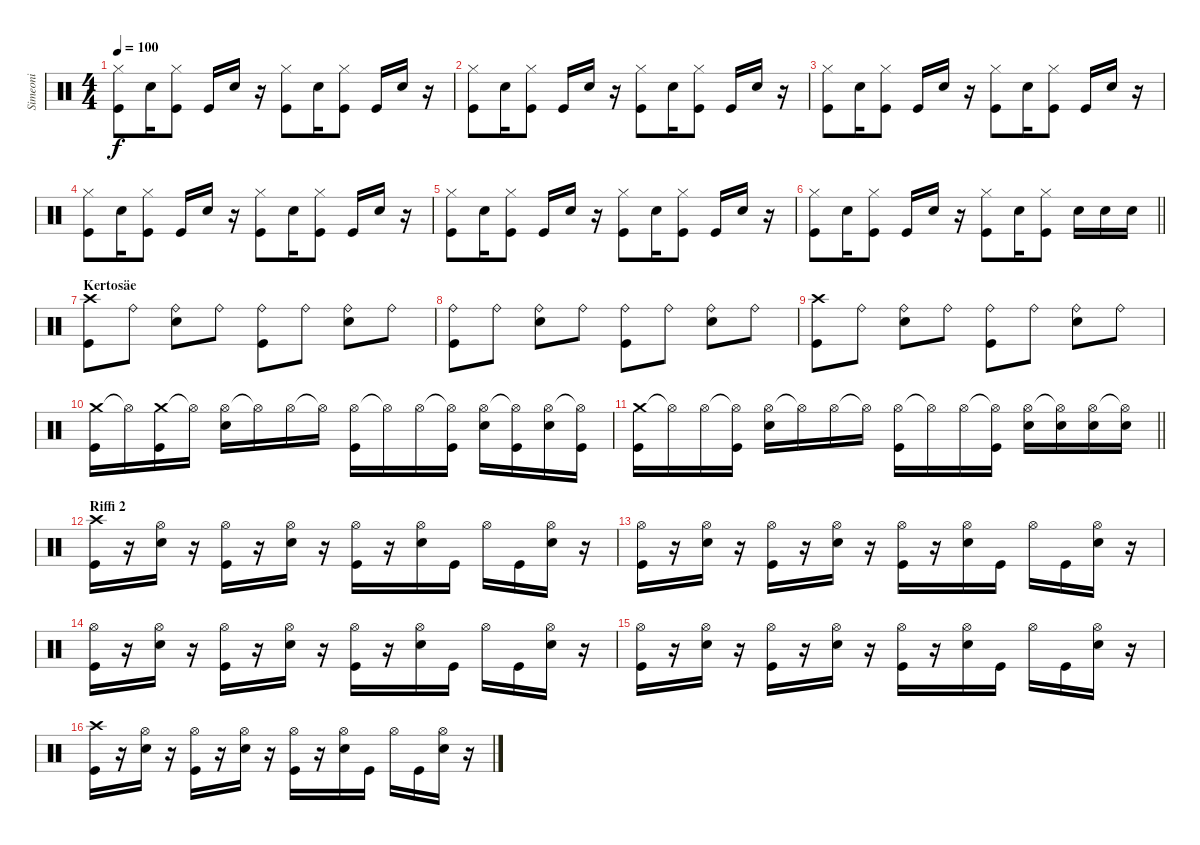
\track ("Simeoni" "Simeoni") {instrument percussion}
\staff {score}
\articulation defaults
\ts (4 4)
\tempo 100
\clef neutral
\ks c
("Hi-Hat (closed)" "Kick (hit)").8{dy f} "Electric Snare (hit)".16 ("Hi-Hat (closed)" "Kick (hit)").8 "Kick (hit)".16 "Electric Snare (hit)".16 r.16 ("Hi-Hat (closed)" "Kick (hit)").8 "Electric Snare (hit)".16 ("Hi-Hat (closed)" "Kick (hit)").8 "Kick (hit)".16 "Electric Snare (hit)".16 r.16 |
("Hi-Hat (closed)" "Kick (hit)").8 "Electric Snare (hit)".16 ("Hi-Hat (closed)" "Kick (hit)").8 "Kick (hit)".16 "Electric Snare (hit)".16 r.16 ("Hi-Hat (closed)" "Kick (hit)").8 "Electric Snare (hit)".16 ("Hi-Hat (closed)" "Kick (hit)").8 "Kick (hit)".16 "Electric Snare (hit)".16 r.16 |
("Hi-Hat (closed)" "Kick (hit)").8 "Electric Snare (hit)".16 ("Hi-Hat (closed)" "Kick (hit)").8 "Kick (hit)".16 "Electric Snare (hit)".16 r.16 ("Hi-Hat (closed)" "Kick (hit)").8 "Electric Snare (hit)".16 ("Hi-Hat (closed)" "Kick (hit)").8 "Kick (hit)".16 "Electric Snare (hit)".16 r.16 |
("Hi-Hat (closed)" "Kick (hit)").8 "Electric Snare (hit)".16 ("Hi-Hat (closed)" "Kick (hit)").8 "Kick (hit)".16 "Electric Snare (hit)".16 r.16 ("Hi-Hat (closed)" "Kick (hit)").8 "Electric Snare (hit)".16 ("Hi-Hat (closed)" "Kick (hit)").8 "Kick (hit)".16 "Electric Snare (hit)".16 r.16 |
("Hi-Hat (closed)" "Kick (hit)").8 "Electric Snare (hit)".16 ("Hi-Hat (closed)" "Kick (hit)").8 "Kick (hit)".16 "Electric Snare (hit)".16 r.16 ("Hi-Hat (closed)" "Kick (hit)").8 "Electric Snare (hit)".16 ("Hi-Hat (closed)" "Kick (hit)").8 "Kick (hit)".16 "Electric Snare (hit)".16 r.16 |
\barLineRight lightlight
("Hi-Hat (closed)" "Kick (hit)").8 "Electric Snare (hit)".16 ("Hi-Hat (closed)" "Kick (hit)").8 "Kick (hit)".16 "Electric Snare (hit)".16 r.16 ("Hi-Hat (closed)" "Kick (hit)").8 "Electric Snare (hit)".16 ("Hi-Hat (closed)" "Kick (hit)").8 "Electric Snare (hit)".16 "Electric Snare (hit)".16 "Electric Snare (hit)".16 |
\section ("" "Kertosäe")
("Crash high (hit)" "Kick (hit)").8 "Ride (bell)".8 ("Ride (bell)" "Electric Snare (hit)").8 "Ride (bell)".8 ("Ride (bell)" "Kick (hit)").8 "Ride (bell)".8 ("Ride (bell)" "Electric Snare (hit)").8 "Ride (bell)".8 |
("Ride (bell)" "Kick (hit)").8 "Ride (bell)".8 ("Ride (bell)" "Electric Snare (hit)").8 "Ride (bell)".8 ("Ride (bell)" "Kick (hit)").8 "Ride (bell)".8 ("Ride (bell)" "Electric Snare (hit)").8 "Ride (bell)".8 |
("Crash high (hit)" "Kick (hit)").8 "Ride (bell)".8 ("Ride (bell)" "Electric Snare (hit)").8 "Ride (bell)".8 ("Ride (bell)" "Kick (hit)").8 "Ride (bell)".8 ("Ride (bell)" "Electric Snare (hit)").8 "Ride (bell)".8 |
("Crash medium (hit)" "Kick (hit)").16 "Hi-Hat (open)"{t}.16 ("Crash medium (hit)" "Kick (hit)").16 "Hi-Hat (open)"{t}.16 ("Hi-Hat (open)" "Electric Snare (hit)").16 "Hi-Hat (open)"{t}.16 "Hi-Hat (open)".16 "Hi-Hat (open)"{t}.16 ("Hi-Hat (open)" "Kick (hit)").16 "Hi-Hat (open)"{t}.16 "Hi-Hat (open)".16 ("Hi-Hat (open)"{t} "Kick (hit)").16 ("Hi-Hat (open)" "Electric Snare (hit)").16 ("Hi-Hat (open)"{t} "Kick (hit)").16 ("Hi-Hat (open)" "Electric Snare (hit)").16 ("Hi-Hat (open)"{t} "Kick (hit)").16 |
\barLineRight lightlight
("Crash medium (hit)" "Kick (hit)").16 "Hi-Hat (open)"{t}.16 "Hi-Hat (open)".16 ("Hi-Hat (open)"{t} "Kick (hit)").16 ("Hi-Hat (open)" "Electric Snare (hit)").16 "Hi-Hat (open)"{t}.16 "Hi-Hat (open)".16 "Hi-Hat (open)"{t}.16 ("Hi-Hat (open)" "Kick (hit)").16 "Hi-Hat (open)"{t}.16 "Hi-Hat (open)".16 ("Hi-Hat (open)"{t} "Kick (hit)").16 ("Hi-Hat (open)" "Electric Snare (hit)").16 ("Hi-Hat (open)"{t} "Electric Snare (hit)").16 ("Hi-Hat (open)" "Electric Snare (hit)").16 ("Hi-Hat (open)"{t} "Electric Snare (hit)").16 |
\section ("" "Riffi 2")
("Crash high (hit)" "Kick (hit)").16 r.16 ("Hi-Hat (open)" "Electric Snare (hit)").16 r.16 ("Hi-Hat (open)" "Kick (hit)").16 r.16 ("Hi-Hat (open)" "Electric Snare (hit)").16 r.16 ("Hi-Hat (open)" "Kick (hit)").16 r.16 ("Hi-Hat (open)" "Electric Snare (hit)").16 "Kick (hit)".16 "Hi-Hat (open)".16 "Kick (hit)".16 ("Hi-Hat (open)" "Electric Snare (hit)").16 r.16 |
("Hi-Hat (open)" "Kick (hit)").16 r.16 ("Hi-Hat (open)" "Electric Snare (hit)").16 r.16 ("Hi-Hat (open)" "Kick (hit)").16 r.16 ("Hi-Hat (open)" "Electric Snare (hit)").16 r.16 ("Hi-Hat (open)" "Kick (hit)").16 r.16 ("Hi-Hat (open)" "Electric Snare (hit)").16 "Kick (hit)".16 "Hi-Hat (open)".16 "Kick (hit)".16 ("Hi-Hat (open)" "Electric Snare (hit)").16 r.16 |
("Hi-Hat (open)" "Kick (hit)").16 r.16 ("Hi-Hat (open)" "Electric Snare (hit)").16 r.16 ("Hi-Hat (open)" "Kick (hit)").16 r.16 ("Hi-Hat (open)" "Electric Snare (hit)").16 r.16 ("Hi-Hat (open)" "Kick (hit)").16 r.16 ("Hi-Hat (open)" "Electric Snare (hit)").16 "Kick (hit)".16 "Hi-Hat (open)".16 "Kick (hit)".16 ("Hi-Hat (open)" "Electric Snare (hit)").16 r.16 |
("Hi-Hat (open)" "Kick (hit)").16 r.16 ("Hi-Hat (open)" "Electric Snare (hit)").16 r.16 ("Hi-Hat (open)" "Kick (hit)").16 r.16 ("Hi-Hat (open)" "Electric Snare (hit)").16 r.16 ("Hi-Hat (open)" "Kick (hit)").16 r.16 ("Hi-Hat (open)" "Electric Snare (hit)").16 "Kick (hit)".16 "Hi-Hat (open)".16 "Kick (hit)".16 ("Hi-Hat (open)" "Electric Snare (hit)").16 r.16 |
("Crash high (hit)" "Kick (hit)").16 r.16 ("Hi-Hat (open)" "Electric Snare (hit)").16 r.16 ("Hi-Hat (open)" "Kick (hit)").16 r.16 ("Hi-Hat (open)" "Electric Snare (hit)").16 r.16 ("Hi-Hat (open)" "Kick (hit)").16 r.16 ("Hi-Hat (open)" "Electric Snare (hit)").16 "Kick (hit)".16 "Hi-Hat (open)".16 "Kick (hit)".16 ("Hi-Hat (open)" "Electric Snare (hit)").16 r.16
